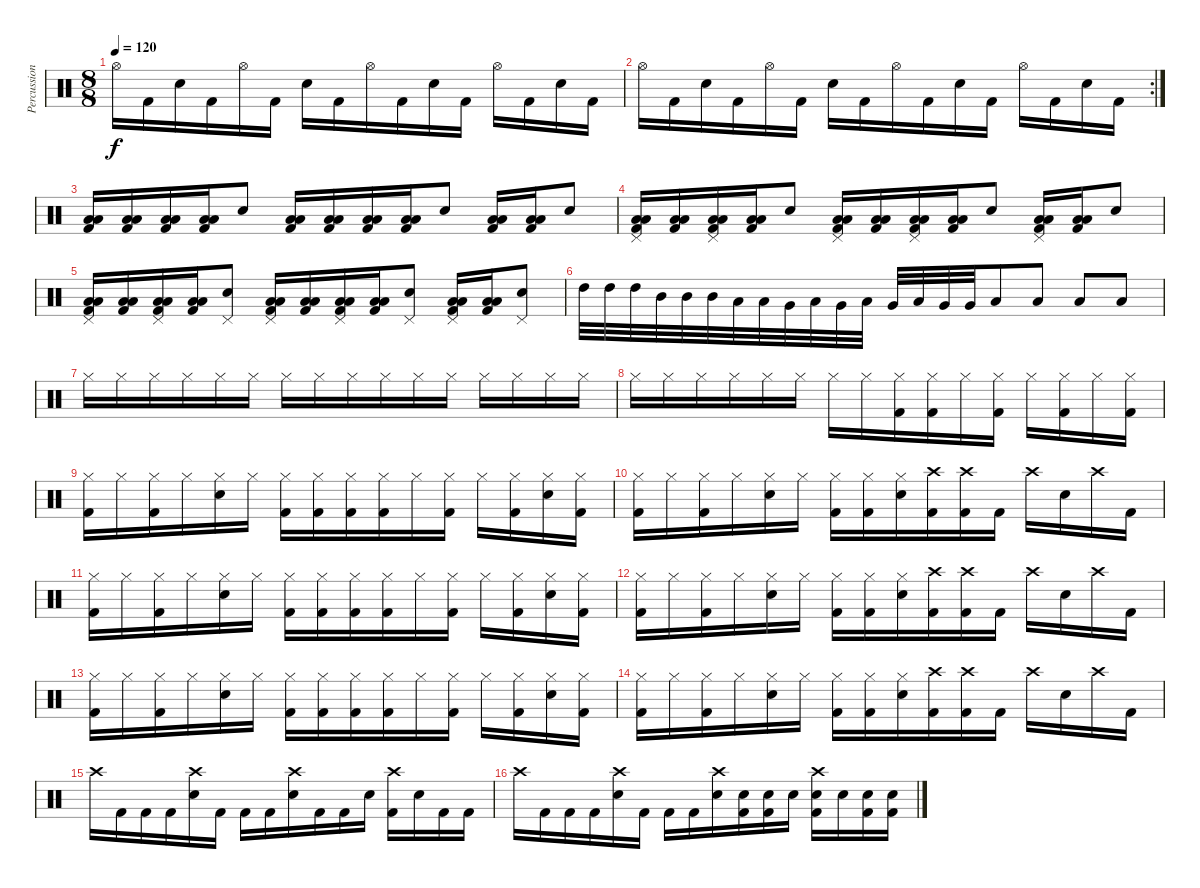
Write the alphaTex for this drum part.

\track ("Percussion" "Percussion") {instrument percussion}
\staff {score}
\articulation defaults
\ts (8 8)
\tempo 120
\clef neutral
\ks c "Hi-Hat (open)".16{dy f} "Kick (hit) 2".16 "Snare (hit) 2".16 "Kick (hit) 2".16 "Hi-Hat (open)".16 "Kick (hit) 2".16 "Snare (hit) 2".16 "Kick (hit) 2".16 "Hi-Hat (open)".16 "Kick (hit) 2".16 "Snare (hit) 2".16 "Kick (hit) 2".16 "Hi-Hat (open)".16 "Kick (hit) 2".16 "Snare (hit) 2".16 "Kick (hit) 2".16
|
\rc 2 "Hi-Hat (open)".16 "Kick (hit) 2".16 "Snare (hit) 2".16 "Kick (hit) 2".16 "Hi-Hat (open)".16 "Kick (hit) 2".16 "Snare (hit) 2".16 "Kick (hit) 2".16 "Hi-Hat (open)".16 "Kick (hit) 2".16 "Snare (hit) 2".16 "Kick (hit) 2".16 "Hi-Hat (open)".16 "Kick (hit) 2".16 "Snare (hit) 2".16 "Kick (hit) 2".16
|
("Low Tom (hit)" "Low Floor Tom (hit)" "Kick (hit) 2").16 ("Low Tom (hit)" "Low Floor Tom (hit)" "Kick (hit) 2").16 ("Low Tom (hit)" "Low Floor Tom (hit)" "Kick (hit) 2").16 ("Low Tom (hit)" "Low Floor Tom (hit)" "Kick (hit) 2").16 "Snare (hit) 2".8 ("Low Tom (hit)" "Low Floor Tom (hit)" "Kick (hit) 2").16 ("Low Tom (hit)" "Low Floor Tom (hit)" "Kick (hit) 2").16 ("Low Tom (hit)" "Low Floor Tom (hit)" "Kick (hit) 2").16 ("Low Tom (hit)" "Low Floor Tom (hit)" "Kick (hit) 2").16 "Snare (hit) 2".8 ("Low Tom (hit)" "Low Floor Tom (hit)" "Kick (hit) 2").16 ("Low Tom (hit)" "Low Floor Tom (hit)" "Kick (hit) 2").16 "Snare (hit) 2".8 |
("Pedal Hi-Hat (hit)" "Low Tom (hit)" "Low Floor Tom (hit)" "Kick (hit) 2").16 ("Low Tom (hit)" "Low Floor Tom (hit)" "Kick (hit) 2").16 ("Pedal Hi-Hat (hit)" "Low Tom (hit)" "Low Floor Tom (hit)" "Kick (hit) 2").16 ("Low Tom (hit)" "Low Floor Tom (hit)" "Kick (hit) 2").16 "Snare (hit) 2".8 ("Pedal Hi-Hat (hit)" "Low Tom (hit)" "Low Floor Tom (hit)" "Kick (hit) 2").16 ("Low Tom (hit)" "Low Floor Tom (hit)" "Kick (hit) 2").16 ("Pedal Hi-Hat (hit)" "Low Tom (hit)" "Low Floor Tom (hit)" "Kick (hit) 2").16 ("Low Tom (hit)" "Low Floor Tom (hit)" "Kick (hit) 2").16 "Snare (hit) 2".8 ("Pedal Hi-Hat (hit)" "Low Tom (hit)" "Low Floor Tom (hit)" "Kick (hit) 2").16 ("Low Tom (hit)" "Low Floor Tom (hit)" "Kick (hit) 2").16 "Snare (hit) 2".8 |
("Pedal Hi-Hat (hit)" "Low Tom (hit)" "Low Floor Tom (hit)" "Kick (hit) 2").16 ("Low Tom (hit)" "Low Floor Tom (hit)" "Kick (hit) 2").16 ("Pedal Hi-Hat (hit)" "Low Tom (hit)" "Low Floor Tom (hit)" "Kick (hit) 2").16 ("Low Tom (hit)" "Low Floor Tom (hit)" "Kick (hit) 2").16 ("Pedal Hi-Hat (hit)" "Snare (hit) 2").8 ("Pedal Hi-Hat (hit)" "Low Tom (hit)" "Low Floor Tom (hit)" "Kick (hit) 2").16 ("Low Tom (hit)" "Low Floor Tom (hit)" "Kick (hit) 2").16 ("Pedal Hi-Hat (hit)" "Low Tom (hit)" "Low Floor Tom (hit)" "Kick (hit) 2").16 ("Low Tom (hit)" "Low Floor Tom (hit)" "Kick (hit) 2").16 ("Pedal Hi-Hat (hit)" "Snare (hit) 2").8 ("Pedal Hi-Hat (hit)" "Low Tom (hit)" "Low Floor Tom (hit)" "Kick (hit) 2").16 ("Low Tom (hit)" "Low Floor Tom (hit)" "Kick (hit) 2").16 ("Pedal Hi-Hat (hit)" "Snare (hit) 2").8 |
"High Tom (hit)".32 "High Tom (hit)".32 "High Tom (hit)".32 "Mid Tom (hit)".32 "Mid Tom (hit)".32 "Mid Tom (hit)".32 "Low Tom (hit)".32 "Low Tom (hit)".32 "Very Low Tom (hit)".32 "Low Tom (hit)".32 "Very Low Tom (hit)".32 "Low Tom (hit)".32 "Very Low Tom (hit)".32 "Low Tom (hit)".32 "Very Low Tom (hit)".32 "Very Low Tom (hit)".32 "Low Tom (hit)".8 "Low Tom (hit)".8 "Low Tom (hit)".8 "Low Tom (hit)".8 |
"Hi-Hat (closed)".16 "Hi-Hat (closed)".16 "Hi-Hat (closed)".16 "Hi-Hat (closed)".16 "Hi-Hat (closed)".16 "Hi-Hat (closed)".16 "Hi-Hat (closed)".16 "Hi-Hat (closed)".16 "Hi-Hat (closed)".16 "Hi-Hat (closed)".16 "Hi-Hat (closed)".16 "Hi-Hat (closed)".16 "Hi-Hat (closed)".16 "Hi-Hat (closed)".16 "Hi-Hat (closed)".16 "Hi-Hat (closed)".16 |
"Hi-Hat (closed)".16 "Hi-Hat (closed)".16 "Hi-Hat (closed)".16 "Hi-Hat (closed)".16 "Hi-Hat (closed)".16 "Hi-Hat (closed)".16 "Hi-Hat (closed)".16 "Hi-Hat (closed)".16 ("Kick (hit) 2" "Hi-Hat (closed)").16 ("Kick (hit) 2" "Hi-Hat (closed)").16 "Hi-Hat (closed)".16 ("Kick (hit) 2" "Hi-Hat (closed)").16 "Hi-Hat (closed)".16 ("Kick (hit) 2" "Hi-Hat (closed)").16 "Hi-Hat (closed)".16 ("Kick (hit) 2" "Hi-Hat (closed)").16 |
("Kick (hit) 2" "Hi-Hat (closed)").16 "Hi-Hat (closed)".16 ("Kick (hit) 2" "Hi-Hat (closed)").16 "Hi-Hat (closed)".16 ("Snare (hit) 2" "Hi-Hat (closed)").16 "Hi-Hat (closed)".16 ("Kick (hit) 2" "Hi-Hat (closed)").16 ("Kick (hit) 2" "Hi-Hat (closed)").16 ("Kick (hit) 2" "Hi-Hat (closed)").16 ("Kick (hit) 2" "Hi-Hat (closed)").16 "Hi-Hat (closed)".16 ("Kick (hit) 2" "Hi-Hat (closed)").16 "Hi-Hat (closed)".16 ("Kick (hit) 2" "Hi-Hat (closed)").16 ("Snare (hit) 2" "Hi-Hat (closed)").16 ("Kick (hit) 2" "Hi-Hat (closed)").16 |
("Kick (hit) 2" "Hi-Hat (closed)").16 "Hi-Hat (closed)".16 ("Kick (hit) 2" "Hi-Hat (closed)").16 "Hi-Hat (closed)".16 ("Snare (hit) 2" "Hi-Hat (closed)").16 "Hi-Hat (closed)".16 ("Kick (hit) 2" "Hi-Hat (closed)").16 ("Kick (hit) 2" "Hi-Hat (closed)").16 ("Snare (hit) 2" "Hi-Hat (closed)").16 ("Kick (hit) 2" "Crash high (hit)").16 ("Kick (hit) 2" "Crash high (hit)").16 "Kick (hit) 2".16 "Crash high (hit)".16 "Snare (hit) 2".16 "Crash high (hit)".16 "Kick (hit) 2".16 |
("Kick (hit) 2" "Hi-Hat (closed)").16 "Hi-Hat (closed)".16 ("Kick (hit) 2" "Hi-Hat (closed)").16 "Hi-Hat (closed)".16 ("Snare (hit) 2" "Hi-Hat (closed)").16 "Hi-Hat (closed)".16 ("Kick (hit) 2" "Hi-Hat (closed)").16 ("Kick (hit) 2" "Hi-Hat (closed)").16 ("Kick (hit) 2" "Hi-Hat (closed)").16 ("Kick (hit) 2" "Hi-Hat (closed)").16 "Hi-Hat (closed)".16 ("Kick (hit) 2" "Hi-Hat (closed)").16 "Hi-Hat (closed)".16 ("Kick (hit) 2" "Hi-Hat (closed)").16 ("Snare (hit) 2" "Hi-Hat (closed)").16 ("Kick (hit) 2" "Hi-Hat (closed)").16 |
("Kick (hit) 2" "Hi-Hat (closed)").16 "Hi-Hat (closed)".16 ("Kick (hit) 2" "Hi-Hat (closed)").16 "Hi-Hat (closed)".16 ("Snare (hit) 2" "Hi-Hat (closed)").16 "Hi-Hat (closed)".16 ("Kick (hit) 2" "Hi-Hat (closed)").16 ("Kick (hit) 2" "Hi-Hat (closed)").16 ("Snare (hit) 2" "Hi-Hat (closed)").16 ("Kick (hit) 2" "Crash high (hit)").16 ("Kick (hit) 2" "Crash high (hit)").16 "Kick (hit) 2".16 "Crash high (hit)".16 "Snare (hit) 2".16 "Crash high (hit)".16 "Kick (hit) 2".16 |
("Kick (hit) 2" "Hi-Hat (closed)").16 "Hi-Hat (closed)".16 ("Kick (hit) 2" "Hi-Hat (closed)").16 "Hi-Hat (closed)".16 ("Snare (hit) 2" "Hi-Hat (closed)").16 "Hi-Hat (closed)".16 ("Kick (hit) 2" "Hi-Hat (closed)").16 ("Kick (hit) 2" "Hi-Hat (closed)").16 ("Kick (hit) 2" "Hi-Hat (closed)").16 ("Kick (hit) 2" "Hi-Hat (closed)").16 "Hi-Hat (closed)".16 ("Kick (hit) 2" "Hi-Hat (closed)").16 "Hi-Hat (closed)".16 ("Kick (hit) 2" "Hi-Hat (closed)").16 ("Snare (hit) 2" "Hi-Hat (closed)").16 ("Kick (hit) 2" "Hi-Hat (closed)").16 |
("Kick (hit) 2" "Hi-Hat (closed)").16 "Hi-Hat (closed)".16 ("Kick (hit) 2" "Hi-Hat (closed)").16 "Hi-Hat (closed)".16 ("Snare (hit) 2" "Hi-Hat (closed)").16 "Hi-Hat (closed)".16 ("Kick (hit) 2" "Hi-Hat (closed)").16 ("Kick (hit) 2" "Hi-Hat (closed)").16 ("Snare (hit) 2" "Hi-Hat (closed)").16 ("Kick (hit) 2" "Crash high (hit)").16 ("Kick (hit) 2" "Crash high (hit)").16 "Kick (hit) 2".16 "Crash high (hit)".16 "Snare (hit) 2".16 "Crash high (hit)".16 "Kick (hit) 2".16 |
"Crash high (hit)".16 "Kick (hit) 2".16 "Kick (hit) 2".16 "Kick (hit) 2".16 ("Crash high (hit)" "Snare (hit) 2").16 "Kick (hit) 2".16 "Kick (hit) 2".16 "Kick (hit) 2".16 ("Crash high (hit)" "Snare (hit) 2").16 "Kick (hit) 2".16 "Kick (hit) 2".16 "Snare (hit) 2".16 ("Crash high (hit)" "Kick (hit) 2").16 "Snare (hit) 2".16 "Kick (hit) 2".16 "Kick (hit) 2".16 |
"Crash high (hit)".16 "Kick (hit) 2".16 "Kick (hit) 2".16 "Kick (hit) 2".16 ("Crash high (hit)" "Snare (hit) 2").16 "Kick (hit) 2".16 "Kick (hit) 2".16 "Kick (hit) 2".16 ("Crash high (hit)" "Snare (hit) 2").16 ("Snare (hit) 2" "Kick (hit) 2").16 ("Snare (hit) 2" "Kick (hit) 2").16 "Snare (hit) 2".16 ("Crash high (hit)" "Snare (hit) 2" "Kick (hit) 2").16 "Snare (hit) 2".16 ("Snare (hit) 2" "Kick (hit) 2").16 ("Snare (hit) 2" "Kick (hit) 2").16
